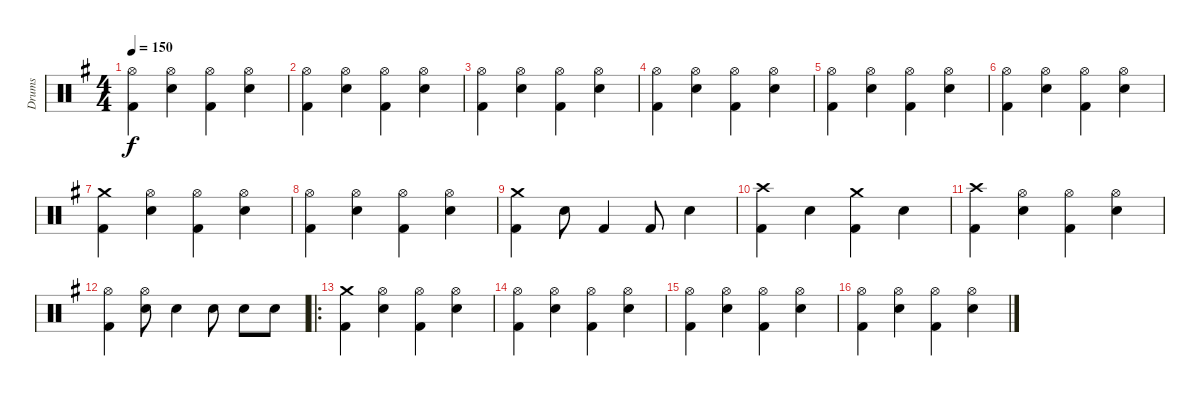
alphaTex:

\track ("Drums" "Drums") {instrument percussion}
\staff {score}
\articulation defaults
\ts (4 4)
\tempo 150
\clef neutral
\ks g
("Hi-Hat (open)" "Kick (hit) 2").4{dy f} ("Hi-Hat (open)" "Electric Snare (hit)").4 ("Hi-Hat (open)" "Kick (hit) 2").4 ("Hi-Hat (open)" "Electric Snare (hit)").4 |
("Hi-Hat (open)" "Kick (hit) 2").4 ("Hi-Hat (open)" "Electric Snare (hit)").4 ("Hi-Hat (open)" "Kick (hit) 2").4 ("Hi-Hat (open)" "Electric Snare (hit)").4 |
("Hi-Hat (open)" "Kick (hit) 2").4 ("Hi-Hat (open)" "Electric Snare (hit)").4 ("Hi-Hat (open)" "Kick (hit) 2").4 ("Hi-Hat (open)" "Electric Snare (hit)").4 |
("Hi-Hat (open)" "Kick (hit) 2").4 ("Hi-Hat (open)" "Electric Snare (hit)").4 ("Hi-Hat (open)" "Kick (hit) 2").4 ("Hi-Hat (open)" "Electric Snare (hit)").4 |
("Hi-Hat (open)" "Kick (hit) 2").4 ("Hi-Hat (open)" "Electric Snare (hit)").4 ("Hi-Hat (open)" "Kick (hit) 2").4 ("Hi-Hat (open)" "Electric Snare (hit)").4 |
("Hi-Hat (open)" "Kick (hit) 2").4 ("Hi-Hat (open)" "Electric Snare (hit)").4 ("Hi-Hat (open)" "Kick (hit) 2").4 ("Hi-Hat (open)" "Electric Snare (hit)").4 |
("Crash medium (hit)" "Kick (hit) 2").4 ("Hi-Hat (open)" "Electric Snare (hit)").4 ("Hi-Hat (open)" "Kick (hit) 2").4 ("Hi-Hat (open)" "Electric Snare (hit)").4 |
("Hi-Hat (open)" "Kick (hit) 2").4 ("Hi-Hat (open)" "Electric Snare (hit)").4 ("Hi-Hat (open)" "Kick (hit) 2").4 ("Hi-Hat (open)" "Electric Snare (hit)").4 |
("Crash medium (hit)" "Kick (hit) 2").4 "Electric Snare (hit)".8 "Kick (hit) 2".4 "Kick (hit) 2".8 "Electric Snare (hit)".4 |
("Crash high (hit)" "Kick (hit) 2").4 "Electric Snare (hit)".4 ("Crash medium (hit)" "Kick (hit) 2").4 "Electric Snare (hit)".4 |
("Crash high (hit)" "Kick (hit) 2").4 ("Hi-Hat (open)" "Electric Snare (hit)").4 ("Hi-Hat (open)" "Kick (hit) 2").4 ("Hi-Hat (open)" "Electric Snare (hit)").4 |
("Hi-Hat (open)" "Kick (hit) 2").4 ("Hi-Hat (open)" "Electric Snare (hit)").8 "Electric Snare (hit)".4 "Electric Snare (hit)".8 "Electric Snare (hit)".8 "Electric Snare (hit)".8 |
\ro
("Crash medium (hit)" "Kick (hit) 2").4 ("Hi-Hat (open)" "Electric Snare (hit)").4 ("Hi-Hat (open)" "Kick (hit) 2").4 ("Hi-Hat (open)" "Electric Snare (hit)").4 |
("Hi-Hat (open)" "Kick (hit) 2").4 ("Hi-Hat (open)" "Electric Snare (hit)").4 ("Hi-Hat (open)" "Kick (hit) 2").4 ("Hi-Hat (open)" "Electric Snare (hit)").4 |
("Hi-Hat (open)" "Kick (hit) 2").4 ("Hi-Hat (open)" "Electric Snare (hit)").4 ("Hi-Hat (open)" "Kick (hit) 2").4 ("Hi-Hat (open)" "Electric Snare (hit)").4 |
("Hi-Hat (open)" "Kick (hit) 2").4 ("Hi-Hat (open)" "Electric Snare (hit)").4 ("Hi-Hat (open)" "Kick (hit) 2").4 ("Hi-Hat (open)" "Electric Snare (hit)").4
